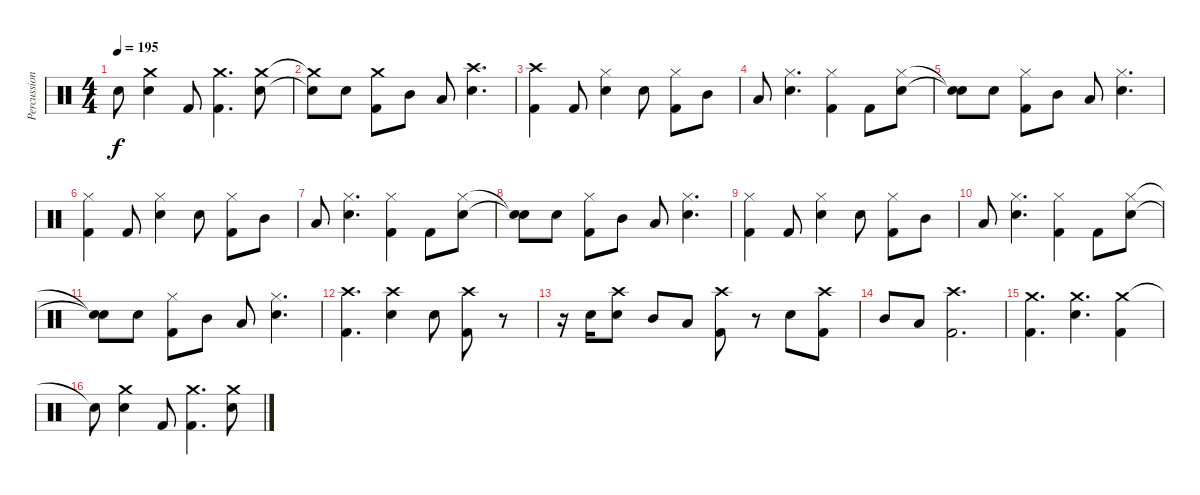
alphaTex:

\track ("Percussion" "Percussion") {instrument percussion}
\staff {score}
\articulation defaults
\ts (4 4)
\tempo 195
\clef neutral
\ks c "Snare (hit)"{t}.8{dy f}
("Crash medium (hit)" "Electric Snare (hit)").4 "Kick (hit) 2".8 ("Crash medium (hit)" "Kick (hit) 2").4{d} ("Crash medium (hit)" "Electric Snare (hit)").8 |
("Crash medium (hit)"{t} "Electric Snare (hit)"{t}).8 "Electric Snare (hit)".8 ("Crash medium (hit)" "Kick (hit) 2").8 "Mid Tom (hit)".8 "Low Tom (hit)".8 ("Crash high (hit)" "Electric Snare (hit)").4{d} |
("Crash high (hit)" "Kick (hit) 2").4 "Kick (hit) 2".8 ("Hi-Hat (closed)" "Electric Snare (hit)").4 "Electric Snare (hit)".8 ("Hi-Hat (closed)" "Kick (hit) 2").8 "Mid Tom (hit)".8 |
"Low Tom (hit)".8 ("Hi-Hat (closed)" "Electric Snare (hit)").4{d} ("Hi-Hat (closed)" "Kick (hit) 2").4 "Kick (hit) 2".8 ("Hi-Hat (closed)" "Electric Snare (hit)").8 |
("Snare (hit)"{t} "Snare (hit)"{t}).8 "Electric Snare (hit)".8 ("Hi-Hat (closed)" "Kick (hit) 2").8 "Mid Tom (hit)".8 "Low Tom (hit)".8 ("Hi-Hat (closed)" "Electric Snare (hit)").4{d} |
("Hi-Hat (closed)" "Kick (hit) 2").4 "Kick (hit) 2".8 ("Hi-Hat (closed)" "Electric Snare (hit)").4 "Electric Snare (hit)".8 ("Hi-Hat (closed)" "Kick (hit) 2").8 "Mid Tom (hit)".8 |
"Low Tom (hit)".8 ("Hi-Hat (closed)" "Electric Snare (hit)").4{d} ("Hi-Hat (closed)" "Kick (hit) 2").4 "Kick (hit) 2".8 ("Hi-Hat (closed)" "Electric Snare (hit)").8 |
("Snare (hit)"{t} "Snare (hit)"{t}).8 "Electric Snare (hit)".8 ("Hi-Hat (closed)" "Kick (hit) 2").8 "Mid Tom (hit)".8 "Low Tom (hit)".8 ("Hi-Hat (closed)" "Electric Snare (hit)").4{d} |
("Hi-Hat (closed)" "Kick (hit) 2").4 "Kick (hit) 2".8 ("Hi-Hat (closed)" "Electric Snare (hit)").4 "Electric Snare (hit)".8 ("Hi-Hat (closed)" "Kick (hit) 2").8 "Mid Tom (hit)".8 |
"Low Tom (hit)".8 ("Hi-Hat (closed)" "Electric Snare (hit)").4{d} ("Hi-Hat (closed)" "Kick (hit) 2").4 "Kick (hit) 2".8 ("Hi-Hat (closed)" "Electric Snare (hit)").8 |
("Snare (hit)"{t} "Snare (hit)"{t}).8 "Electric Snare (hit)".8 ("Hi-Hat (closed)" "Kick (hit) 2").8 "Mid Tom (hit)".8 "Low Tom (hit)".8 ("Hi-Hat (closed)" "Electric Snare (hit)").4{d} |
("Crash high (hit)" "Kick (hit) 2").4{d} ("Crash high (hit)" "Electric Snare (hit)").4 "Electric Snare (hit)".8 ("Crash high (hit)" "Kick (hit) 2").8 r.8 |
r.16 "Electric Snare (hit)".16 ("Crash high (hit)" "Electric Snare (hit)").8 "Mid Tom (hit)".8 "Low Tom (hit)".8 ("Crash high (hit)" "Kick (hit) 2").8 r.8 "Electric Snare (hit)".8 ("Crash high (hit)" "Kick (hit) 2").8 |
"Mid Tom (hit)".8 "Low Tom (hit)".8 ("Crash high (hit)" "Kick (hit) 2").2{d} |
("Crash medium (hit)" "Kick (hit) 2").4{d} ("Crash medium (hit)" "Electric Snare (hit)").4{d} ("Crash medium (hit)" "Kick (hit) 2").4 |
"Snare (hit)"{t}.8 ("Crash medium (hit)" "Electric Snare (hit)").4 "Kick (hit) 2".8 ("Crash medium (hit)" "Kick (hit) 2").4{d} ("Crash medium (hit)" "Electric Snare (hit)").8
